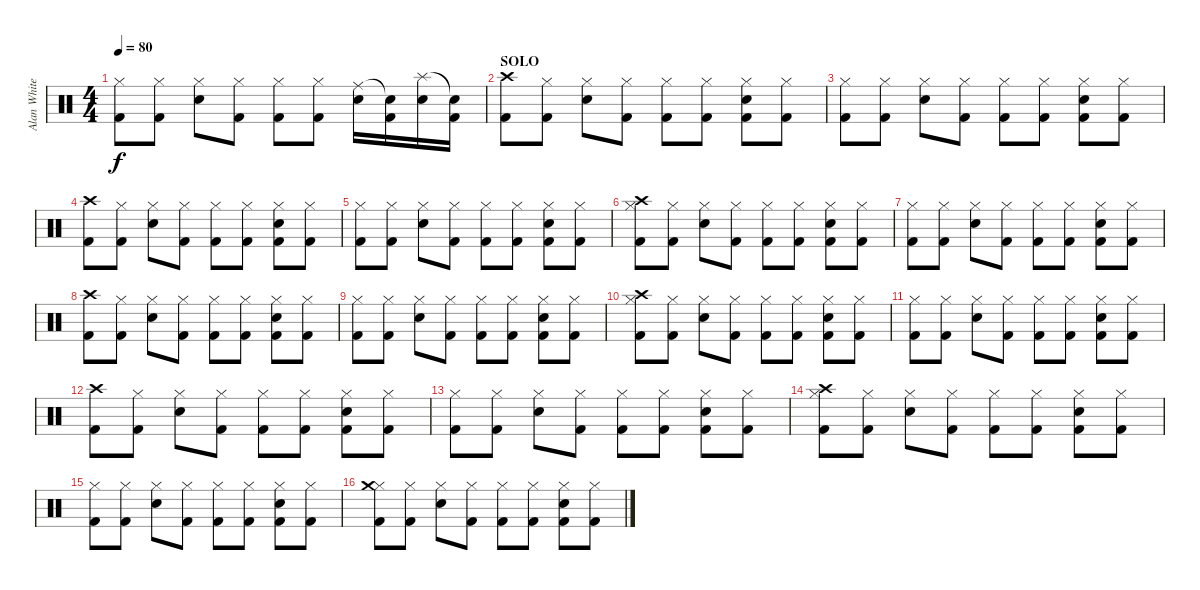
\track ("Alan White" "Alan White") {instrument percussion}
\staff {score}
\articulation defaults
\ts (4 4)
\tempo 80
\clef neutral
\ks c
("Hi-Hat (closed)" "Kick (hit) 2").8{dy f} ("Hi-Hat (closed)" "Kick (hit) 2").8 ("Hi-Hat (closed)" "Snare (hit) 2").8 ("Hi-Hat (closed)" "Kick (hit) 2").8 ("Hi-Hat (closed)" "Kick (hit) 2").8 ("Hi-Hat (closed)" "Kick (hit) 2").8 ("Ride (middle)" "Snare (hit) 2").16 ("Snare (hit)"{t} "Kick (hit) 2").16 ("Splash (hit)" "Snare (hit) 2").16 ("Snare (hit)"{t} "Kick (hit) 2").16 |
\section ("" "SOLO")
("Crash high (hit)" "Kick (hit) 2").8 ("Hi-Hat (closed)" "Kick (hit) 2").8 ("Hi-Hat (closed)" "Snare (hit) 2").8 ("Hi-Hat (closed)" "Kick (hit) 2").8 ("Hi-Hat (closed)" "Kick (hit) 2").8 ("Hi-Hat (closed)" "Kick (hit) 2").8 ("Hi-Hat (closed)" "Snare (hit) 2" "Kick (hit) 2").8 ("Hi-Hat (closed)" "Kick (hit) 2").8 |
("Hi-Hat (closed)" "Kick (hit) 2").8 ("Hi-Hat (closed)" "Kick (hit) 2").8 ("Hi-Hat (closed)" "Snare (hit) 2").8 ("Hi-Hat (closed)" "Kick (hit) 2").8 ("Hi-Hat (closed)" "Kick (hit) 2").8 ("Hi-Hat (closed)" "Kick (hit) 2").8 ("Hi-Hat (closed)" "Snare (hit) 2" "Kick (hit) 2").8 ("Hi-Hat (closed)" "Kick (hit) 2").8 |
("Crash high (hit)" "Kick (hit) 2").8 ("Hi-Hat (closed)" "Kick (hit) 2").8 ("Hi-Hat (closed)" "Snare (hit) 2").8 ("Hi-Hat (closed)" "Kick (hit) 2").8 ("Hi-Hat (closed)" "Kick (hit) 2").8 ("Hi-Hat (closed)" "Kick (hit) 2").8 ("Hi-Hat (closed)" "Snare (hit) 2" "Kick (hit) 2").8 ("Hi-Hat (closed)" "Kick (hit) 2").8 |
("Hi-Hat (closed)" "Kick (hit) 2").8 ("Hi-Hat (closed)" "Kick (hit) 2").8 ("Hi-Hat (closed)" "Snare (hit) 2").8 ("Hi-Hat (closed)" "Kick (hit) 2").8 ("Hi-Hat (closed)" "Kick (hit) 2").8 ("Hi-Hat (closed)" "Kick (hit) 2").8 ("Hi-Hat (closed)" "Snare (hit) 2" "Kick (hit) 2").8 ("Hi-Hat (closed)" "Kick (hit) 2").8 |
("Hi-Hat (closed)" "Crash high (hit)" "Kick (hit) 2").8 ("Hi-Hat (closed)" "Kick (hit) 2").8 ("Hi-Hat (closed)" "Snare (hit) 2").8 ("Hi-Hat (closed)" "Kick (hit) 2").8 ("Hi-Hat (closed)" "Kick (hit) 2").8 ("Hi-Hat (closed)" "Kick (hit) 2").8 ("Hi-Hat (closed)" "Snare (hit) 2" "Kick (hit) 2").8 ("Hi-Hat (closed)" "Kick (hit) 2").8 |
("Hi-Hat (closed)" "Kick (hit) 2").8 ("Hi-Hat (closed)" "Kick (hit) 2").8 ("Hi-Hat (closed)" "Snare (hit) 2").8 ("Hi-Hat (closed)" "Kick (hit) 2").8 ("Hi-Hat (closed)" "Kick (hit) 2").8 ("Hi-Hat (closed)" "Kick (hit) 2").8 ("Hi-Hat (closed)" "Snare (hit) 2" "Kick (hit) 2").8 ("Hi-Hat (closed)" "Kick (hit) 2").8 |
("Crash high (hit)" "Kick (hit) 2").8 ("Hi-Hat (closed)" "Kick (hit) 2").8 ("Hi-Hat (closed)" "Snare (hit) 2").8 ("Hi-Hat (closed)" "Kick (hit) 2").8 ("Hi-Hat (closed)" "Kick (hit) 2").8 ("Hi-Hat (closed)" "Kick (hit) 2").8 ("Hi-Hat (closed)" "Snare (hit) 2" "Kick (hit) 2").8 ("Hi-Hat (closed)" "Kick (hit) 2").8 |
("Hi-Hat (closed)" "Kick (hit) 2").8 ("Hi-Hat (closed)" "Kick (hit) 2").8 ("Hi-Hat (closed)" "Snare (hit) 2").8 ("Hi-Hat (closed)" "Kick (hit) 2").8 ("Hi-Hat (closed)" "Kick (hit) 2").8 ("Hi-Hat (closed)" "Kick (hit) 2").8 ("Hi-Hat (closed)" "Snare (hit) 2" "Kick (hit) 2").8 ("Hi-Hat (closed)" "Kick (hit) 2").8 |
("Hi-Hat (closed)" "Crash high (hit)" "Kick (hit) 2").8 ("Hi-Hat (closed)" "Kick (hit) 2").8 ("Hi-Hat (closed)" "Snare (hit) 2").8 ("Hi-Hat (closed)" "Kick (hit) 2").8 ("Hi-Hat (closed)" "Kick (hit) 2").8 ("Hi-Hat (closed)" "Kick (hit) 2").8 ("Hi-Hat (closed)" "Snare (hit) 2" "Kick (hit) 2").8 ("Hi-Hat (closed)" "Kick (hit) 2").8 |
("Hi-Hat (closed)" "Kick (hit) 2").8 ("Hi-Hat (closed)" "Kick (hit) 2").8 ("Hi-Hat (closed)" "Snare (hit) 2").8 ("Hi-Hat (closed)" "Kick (hit) 2").8 ("Hi-Hat (closed)" "Kick (hit) 2").8 ("Hi-Hat (closed)" "Kick (hit) 2").8 ("Hi-Hat (closed)" "Snare (hit) 2" "Kick (hit) 2").8 ("Hi-Hat (closed)" "Kick (hit) 2").8 |
("Crash high (hit)" "Kick (hit) 2").8 ("Hi-Hat (closed)" "Kick (hit) 2").8 ("Hi-Hat (closed)" "Snare (hit) 2").8 ("Hi-Hat (closed)" "Kick (hit) 2").8 ("Hi-Hat (closed)" "Kick (hit) 2").8 ("Hi-Hat (closed)" "Kick (hit) 2").8 ("Hi-Hat (closed)" "Snare (hit) 2" "Kick (hit) 2").8 ("Hi-Hat (closed)" "Kick (hit) 2").8 |
("Hi-Hat (closed)" "Kick (hit) 2").8 ("Hi-Hat (closed)" "Kick (hit) 2").8 ("Hi-Hat (closed)" "Snare (hit) 2").8 ("Hi-Hat (closed)" "Kick (hit) 2").8 ("Hi-Hat (closed)" "Kick (hit) 2").8 ("Hi-Hat (closed)" "Kick (hit) 2").8 ("Hi-Hat (closed)" "Snare (hit) 2" "Kick (hit) 2").8 ("Hi-Hat (closed)" "Kick (hit) 2").8 |
("Hi-Hat (closed)" "Crash high (hit)" "Kick (hit) 2").8 ("Hi-Hat (closed)" "Kick (hit) 2").8 ("Hi-Hat (closed)" "Snare (hit) 2").8 ("Hi-Hat (closed)" "Kick (hit) 2").8 ("Hi-Hat (closed)" "Kick (hit) 2").8 ("Hi-Hat (closed)" "Kick (hit) 2").8 ("Hi-Hat (closed)" "Snare (hit) 2" "Kick (hit) 2").8 ("Hi-Hat (closed)" "Kick (hit) 2").8 |
("Hi-Hat (closed)" "Kick (hit) 2").8 ("Hi-Hat (closed)" "Kick (hit) 2").8 ("Hi-Hat (closed)" "Snare (hit) 2").8 ("Hi-Hat (closed)" "Kick (hit) 2").8 ("Hi-Hat (closed)" "Kick (hit) 2").8 ("Hi-Hat (closed)" "Kick (hit) 2").8 ("Hi-Hat (closed)" "Snare (hit) 2" "Kick (hit) 2").8 ("Hi-Hat (closed)" "Kick (hit) 2").8 |
("Hi-Hat (closed)" "Crash medium (hit)" "Kick (hit) 2").8 ("Hi-Hat (closed)" "Kick (hit) 2").8 ("Hi-Hat (closed)" "Snare (hit) 2").8 ("Hi-Hat (closed)" "Kick (hit) 2").8 ("Hi-Hat (closed)" "Kick (hit) 2").8 ("Hi-Hat (closed)" "Kick (hit) 2").8 ("Hi-Hat (closed)" "Snare (hit) 2" "Kick (hit) 2").8 ("Hi-Hat (closed)" "Kick (hit) 2").8
